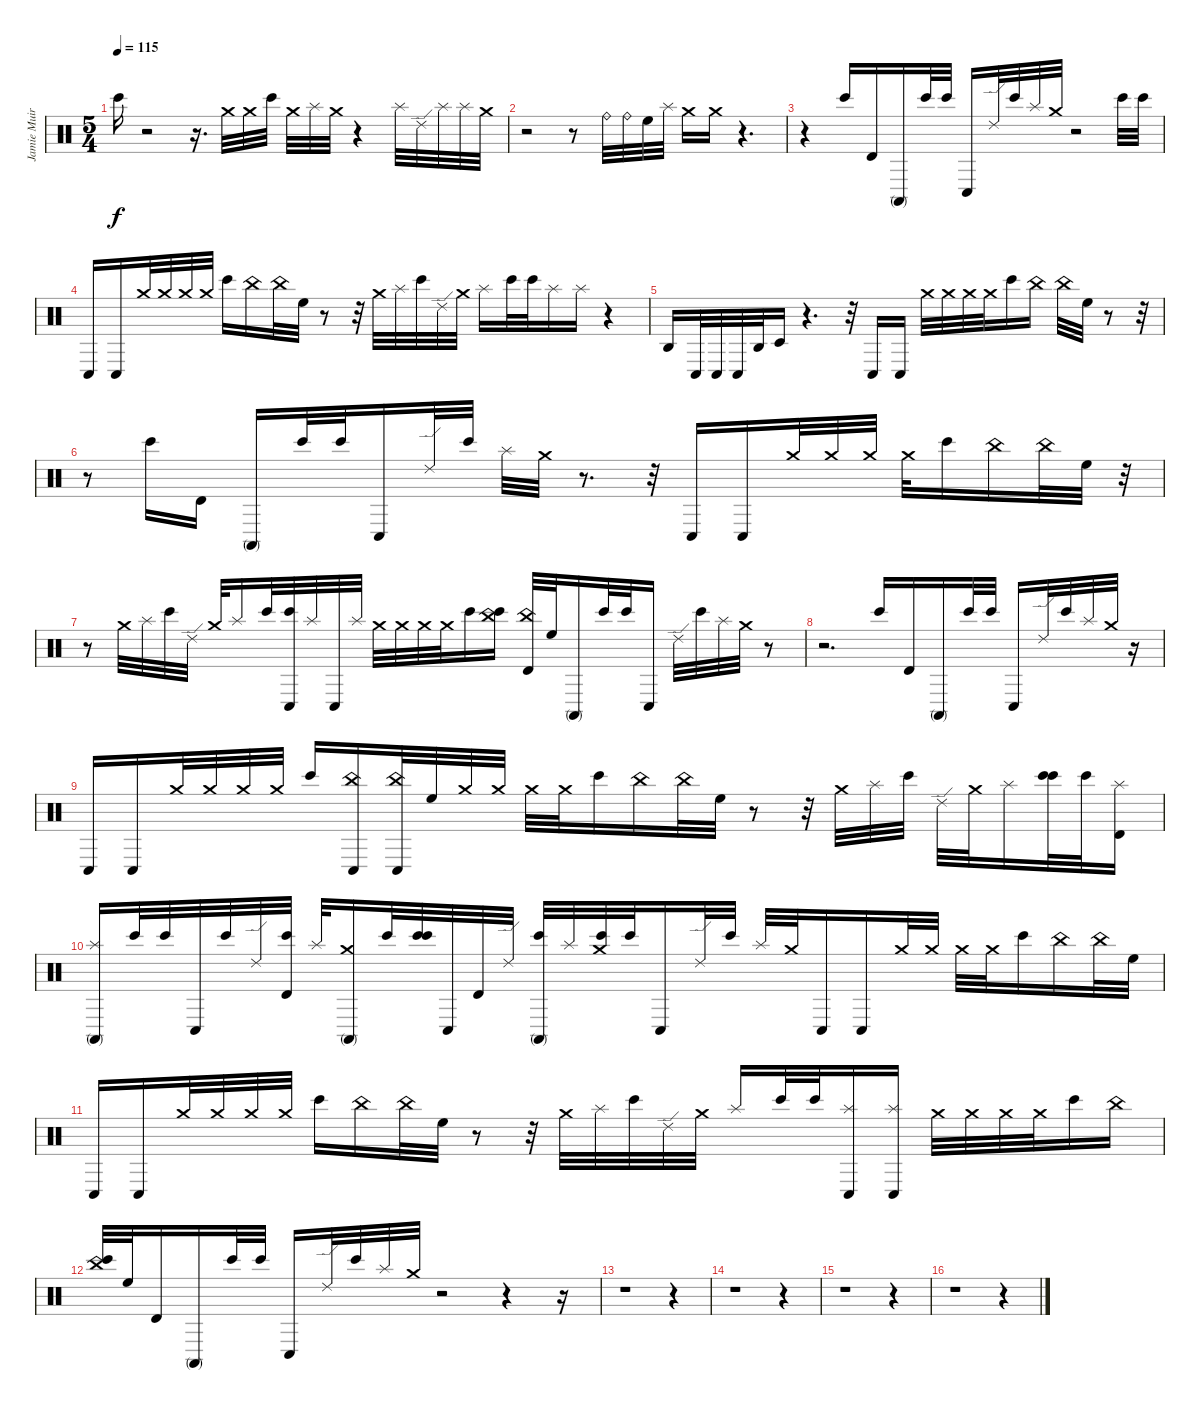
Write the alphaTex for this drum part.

\track ("Jamie Muir effects" "Jamie Muir") {instrument percussion}
\staff {score}
\articulation defaults
\ts (5 4)
\tempo 115
\clef neutral
\ks c "Bongo High (hit)".16{dy f}
r.2 r.16{d} "Crash medium (hit)".32 "Crash medium (hit)".32 "Bongo High (hit)".32 "Crash medium (hit)".32 "Splash (hit)".32 "Crash medium (hit)".32 r.4 "Splash (hit)".32 "Ride (edge) 2".32 "Splash (hit)".32 "Splash (hit)".32 "Crash medium (hit)".32 |
r.2 r.8 "Ride (bell)".32 "Ride (bell)".32 "High Floor Tom (hit)".32 "Splash (hit)".32 "Crash medium (hit)".16 "Crash medium (hit)".16 r.4{d} |
r.4 "Bongo High (hit)".16 "Timbale high (hit)".16 "Conga high (mute)".16 "Bongo High (hit)".32 "Bongo High (hit)".32 "Conga low (hit)".16 "Ride (edge) 2".32 "Bongo High (hit)".32 "Splash (hit)".32 "Crash medium (hit)".32 r.2 "Bongo High (hit)".32 "Bongo High (hit)".32 |
"Conga low (hit)".16 "Conga low (hit)".16 "Crash medium (hit)".32 "Crash medium (hit)".32 "Crash medium (hit)".32 "Crash medium (hit)".32 "Bongo High (hit)".16 "China (hit)".16 "China (hit)".32 "High Floor Tom (hit)".32 r.8 r.32 "Crash medium (hit)".32 "Splash (hit)".32 "Bongo High (hit)".32 "Ride (edge) 2".32 "Crash medium (hit)".32 "Splash (hit)".16 "Bongo High (hit)".32 "Bongo High (hit)".32 "Splash (hit)".16 "Splash (hit)".16 r.4 |
"Agogo high (hit)".16 "Conga low (hit)".32 "Conga low (hit)".32 "Conga low (hit)".32 "Agogo high (hit)".32 "Timbale low (hit)".16 r.4{d} r.32 "Conga low (hit)".16 "Conga low (hit)".16 "Crash medium (hit)".32 "Crash medium (hit)".32 "Crash medium (hit)".32 "Crash medium (hit)".32 "Bongo High (hit)".16 "China (hit)".16 "China (hit)".32 "High Floor Tom (hit)".32 r.8 r.32 |
r.8 "Bongo High (hit)".16 "Timbale high (hit)".16 "Conga high (mute)".16 "Bongo High (hit)".32 "Bongo High (hit)".32 "Conga low (hit)".16 "Ride (edge) 2".32 "Bongo High (hit)".32 "Splash (hit)".32 "Crash medium (hit)".32 r.8{d} r.32 "Conga low (hit)".16 "Conga low (hit)".16 "Crash medium (hit)".32 "Crash medium (hit)".32 "Crash medium (hit)".32 "Crash medium (hit)".32 "Bongo High (hit)".16 "China (hit)".16 "China (hit)".32 "High Floor Tom (hit)".32 r.32 |
r.8 "Crash medium (hit)".32 "Splash (hit)".32 "Bongo High (hit)".32 "Ride (edge) 2".32 "Crash medium (hit)".32 "Splash (hit)".16 "Bongo High (hit)".32 ("Bongo High (hit)" "Conga low (hit)").32 "Splash (hit)".32 "Conga low (hit)".32 "Splash (hit)".32 "Crash medium (hit)".32 "Crash medium (hit)".32 "Crash medium (hit)".32 "Crash medium (hit)".32 "Bongo High (hit)".16 ("Bongo High (hit)" "China (hit)").16 ("Timbale high (hit)" "China (hit)").32 "High Floor Tom (hit)".32 "Conga high (mute)".16 "Bongo High (hit)".32 "Bongo High (hit)".32 "Conga low (hit)".16 "Ride (edge) 2".32 "Bongo High (hit)".32 "Splash (hit)".32 "Crash medium (hit)".32 r.8 |
r.2{d} "Bongo High (hit)".16 "Timbale high (hit)".16 "Conga high (mute)".16 "Bongo High (hit)".32 "Bongo High (hit)".32 "Conga low (hit)".16 "Ride (edge) 2".32 "Bongo High (hit)".32 "Splash (hit)".32 "Crash medium (hit)".32 r.16 |
"Conga low (hit)".16 "Conga low (hit)".16 "Crash medium (hit)".32 "Crash medium (hit)".32 "Crash medium (hit)".32 "Crash medium (hit)".32 "Bongo High (hit)".16 ("China (hit)" "Conga low (hit)").16 ("China (hit)" "Conga low (hit)").32 "High Floor Tom (hit)".32 "Crash medium (hit)".32 "Crash medium (hit)".32 "Crash medium (hit)".32 "Crash medium (hit)".32 "Bongo High (hit)".16 "China (hit)".16 "China (hit)".32 "High Floor Tom (hit)".32 r.8 r.32 "Crash medium (hit)".32 "Splash (hit)".32 "Bongo High (hit)".32 "Ride (edge) 2".32 "Crash medium (hit)".32 "Splash (hit)".16 ("Bongo High (hit)" "Bongo High (hit)").32 "Bongo High (hit)".32 ("Splash (hit)" "Timbale high (hit)").16 |
("Splash (hit)" "Conga high (mute)").16 "Bongo High (hit)".32 "Bongo High (hit)".32 "Conga low (hit)".32 "Bongo High (hit)".32 "Ride (edge) 2".32 ("Bongo High (hit)" "Timbale high (hit)").32 "Splash (hit)".32 ("Crash medium (hit)" "Conga high (mute)").16 "Bongo High (hit)".32 ("Bongo High (hit)" "Bongo High (hit)").32 "Conga low (hit)".32 "Timbale high (hit)".32 "Ride (edge) 2".32 ("Conga high (mute)" "Bongo High (hit)").32 "Splash (hit)".32 ("Bongo High (hit)" "Crash medium (hit)").32 "Bongo High (hit)".32 "Conga low (hit)".16 "Ride (edge) 2".32 "Bongo High (hit)".32 "Splash (hit)".32 "Crash medium (hit)".32 "Conga low (hit)".16 "Conga low (hit)".16 "Crash medium (hit)".32 "Crash medium (hit)".32 "Crash medium (hit)".32 "Crash medium (hit)".32 "Bongo High (hit)".16 "China (hit)".16 "China (hit)".32 "High Floor Tom (hit)".32 |
"Conga low (hit)".16 "Conga low (hit)".16 "Crash medium (hit)".32 "Crash medium (hit)".32 "Crash medium (hit)".32 "Crash medium (hit)".32 "Bongo High (hit)".16 "China (hit)".16 "China (hit)".32 "High Floor Tom (hit)".32 r.8 r.32 "Crash medium (hit)".32 "Splash (hit)".32 "Bongo High (hit)".32 "Ride (edge) 2".32 "Crash medium (hit)".32 "Splash (hit)".16 "Bongo High (hit)".32 "Bongo High (hit)".32 ("Splash (hit)" "Conga low (hit)").16 ("Splash (hit)" "Conga low (hit)").16 "Crash medium (hit)".32 "Crash medium (hit)".32 "Crash medium (hit)".32 "Crash medium (hit)".32 "Bongo High (hit)".16 "China (hit)".16 |
("China (hit)" "Bongo High (hit)").32 "High Floor Tom (hit)".32 "Timbale high (hit)".16 "Conga high (mute)".16 "Bongo High (hit)".32 "Bongo High (hit)".32 "Conga low (hit)".16 "Ride (edge) 2".32 "Bongo High (hit)".32 "Splash (hit)".32 "Crash medium (hit)".32 r.2 r.4 r.16 |
r.1 r.4 |
r.1 r.4 |
r.1 r.4 |
r.1 r.4
